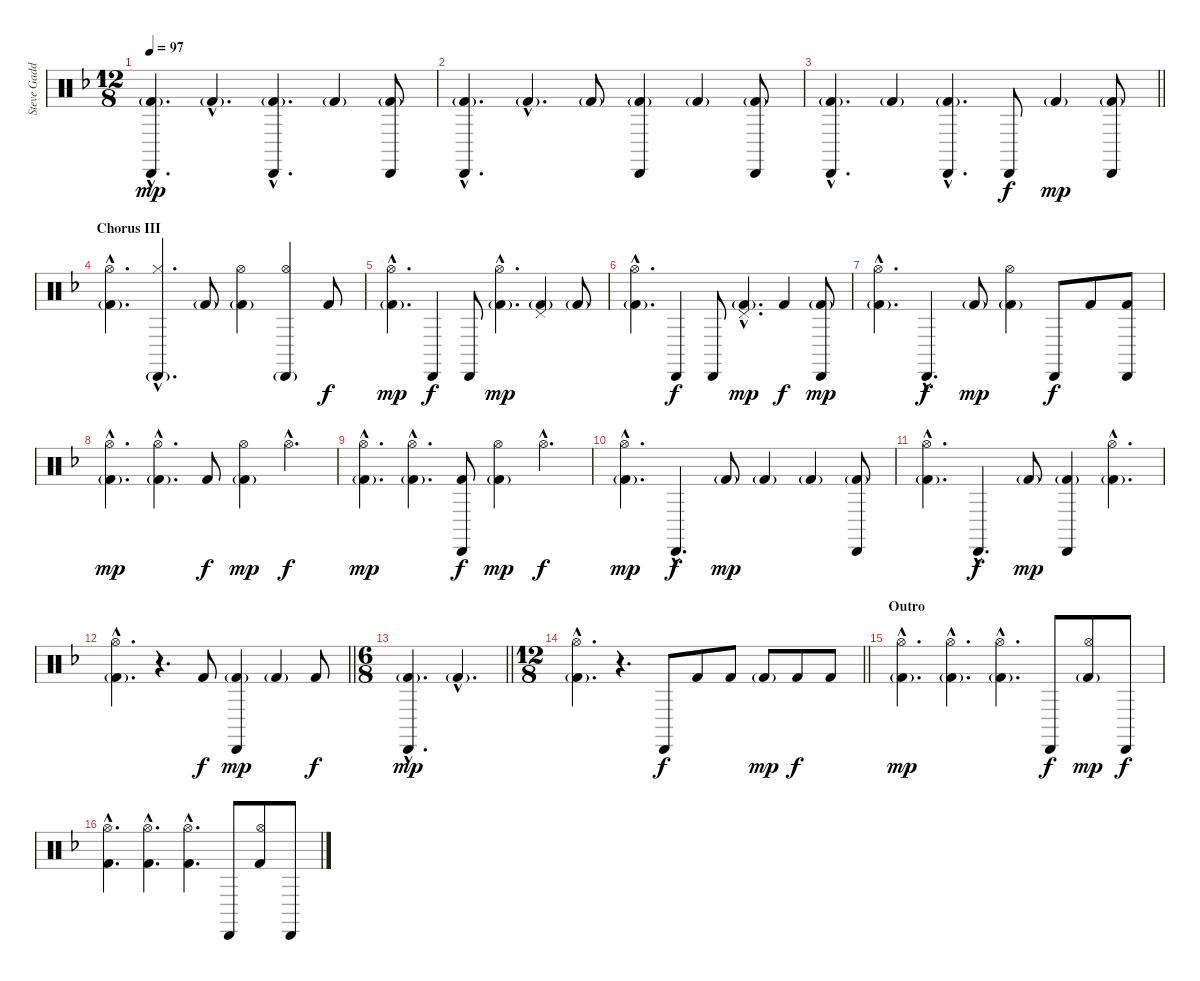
\track ("Steve Gadd Drums" "Steve Gadd") {instrument percussion}
\staff {score}
\articulation defaults
\ts (12 8)
\tempo 97
\clef neutral
\ks f
("Cabasa (hit)"{hac} "Kick (hit) 2"{g hac}).4{d dy mp} "Kick (hit) 2"{g hac}.4{d} ("Cabasa (hit)"{hac} "Kick (hit) 2"{g hac}).4{d} "Kick (hit) 2"{g}.4 ("Cabasa (hit)" "Kick (hit) 2"{g}).8 |
("Cabasa (hit)"{hac} "Kick (hit) 2"{g hac}).4{d} "Kick (hit) 2"{g hac}.4{d} "Kick (hit) 2"{g}.8 ("Cabasa (hit)" "Kick (hit) 2"{g}).4 "Kick (hit) 2"{g}.4 ("Cabasa (hit)" "Kick (hit) 2"{g}).8 |
\barLineRight lightlight
("Cabasa (hit)"{hac} "Kick (hit) 2"{g hac}).4{d} "Kick (hit) 2"{g}.4 ("Cabasa (hit)"{hac} "Kick (hit) 2"{g hac}).4{d} "Cabasa (hit)".8{dy f} "Kick (hit) 2"{g}.4{dy mp} ("Cabasa (hit)" "Kick (hit) 2"{g}).8 |
\section ("" "Chorus III")
("Hi-Hat (open)"{hac} "Kick (hit) 2"{g hac}).4{d} ("Hi-Hat (closed)"{hac} "Cabasa (hit)"{g hac}).4{d} "Kick (hit) 2"{g}.8 ("Hi-Hat (open)" "Kick (hit) 2"{g}).4 ("Hi-Hat (open)" "Cabasa (hit)"{g}).4 "Kick (hit) 2".8{dy f} |
("Hi-Hat (open)"{hac} "Kick (hit) 2"{g hac}).4{d dy mp} "Cabasa (hit)".4{dy f} "Cabasa (hit)".8 ("Hi-Hat (open)"{hac} "Kick (hit) 2"{g hac}).4{d dy mp} ("Pedal Hi-Hat (hit)" "Kick (hit) 2"{g}).4 "Kick (hit) 2"{g}.8 |
("Hi-Hat (open)"{hac} "Kick (hit) 2"{g hac}).4{d} "Cabasa (hit)".4{dy f} "Cabasa (hit)".8 ("Pedal Hi-Hat (hit)"{hac} "Kick (hit) 2"{g hac}).4{d dy mp} "Kick (hit) 2".4{dy f} ("Cabasa (hit)" "Kick (hit) 2"{g}).8{dy mp} |
("Hi-Hat (open)"{hac} "Kick (hit) 2"{g hac}).4{d} "Cabasa (hit)"{hac}.4{d dy f} "Kick (hit) 2"{g}.8{dy mp} ("Hi-Hat (open)" "Kick (hit) 2"{g}).4 "Cabasa (hit)".8{dy f} "Kick (hit) 2".8 ("Cabasa (hit)" "Kick (hit) 2").8 |
("Hi-Hat (open)"{hac} "Kick (hit) 2"{g hac}).4{d dy mp} ("Hi-Hat (open)"{hac} "Kick (hit) 2"{g hac}).4{d} "Kick (hit) 2".8{dy f} ("Hi-Hat (open)" "Kick (hit) 2"{g}).4{dy mp} "Hi-Hat (open)"{hac}.4{d dy f} |
("Hi-Hat (open)"{hac} "Kick (hit) 2"{g hac}).4{d dy mp} ("Hi-Hat (open)"{hac} "Kick (hit) 2"{g hac}).4{d} ("Cabasa (hit)" "Kick (hit) 2").8{dy f} ("Hi-Hat (open)" "Kick (hit) 2"{g}).4{dy mp} "Hi-Hat (open)"{hac}.4{d dy f} |
("Hi-Hat (open)"{hac} "Kick (hit) 2"{g hac}).4{d dy mp} "Cabasa (hit)"{hac}.4{d dy f} "Kick (hit) 2"{g}.8{dy mp} "Kick (hit) 2"{g}.4 "Kick (hit) 2"{g}.4 ("Kick (hit) 2"{g} "Cabasa (hit)").8 |
("Hi-Hat (open)"{hac} "Kick (hit) 2"{g hac}).4{d} "Cabasa (hit)"{hac}.4{d dy f} "Kick (hit) 2"{g}.8{dy mp} ("Cabasa (hit)" "Kick (hit) 2"{g}).4 ("Hi-Hat (open)"{hac} "Kick (hit) 2"{g hac}).4{d} |
\barLineRight lightlight
("Hi-Hat (open)"{hac} "Kick (hit) 2"{g hac}).4{d} r.4{d} "Kick (hit) 2".8{dy f} ("Cabasa (hit)" "Kick (hit) 2"{g}).4{dy mp} "Kick (hit) 2"{g}.4 "Kick (hit) 2".8{dy f} |
\ts (6 8)
\barLineRight lightlight
("Cabasa (hit)"{hac} "Kick (hit) 2"{g hac}).4{d dy mp} "Kick (hit) 2"{g hac}.4{d} |
\ts (12 8)
\barLineRight lightlight
("Hi-Hat (open)"{hac} "Kick (hit) 2"{g hac}).4{d} r.4{d} "Cabasa (hit)".8{dy f} "Kick (hit) 2".8 "Kick (hit) 2".8 "Kick (hit) 2"{g}.8{dy mp} "Kick (hit) 2".8{dy f} "Kick (hit) 2".8 |
\section ("" "Outro")
("Hi-Hat (open)"{hac} "Kick (hit) 2"{g hac}).4{d dy mp} ("Hi-Hat (open)"{hac} "Kick (hit) 2"{g hac}).4{d} ("Hi-Hat (open)"{hac} "Kick (hit) 2"{g hac}).4{d} "Cabasa (hit)".8{dy f} ("Hi-Hat (open)" "Kick (hit) 2"{g}).8{dy mp} "Cabasa (hit)".8{dy f} |
("Hi-Hat (open)"{hac} "Kick (hit) 2"{hac}).4{d} ("Hi-Hat (open)"{hac} "Kick (hit) 2"{hac}).4{d} ("Hi-Hat (open)"{hac} "Kick (hit) 2"{hac}).4{d} "Cabasa (hit)".8 ("Hi-Hat (open)" "Kick (hit) 2").8 "Cabasa (hit)".8
